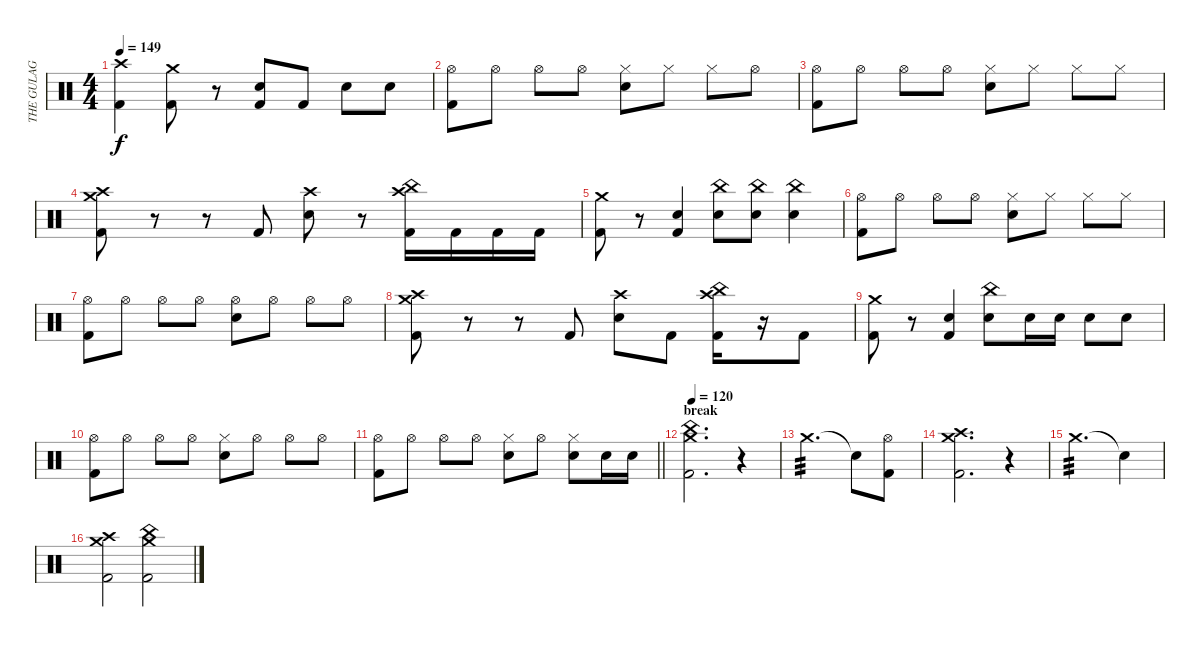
\track ("THE GULAG" "THE GULAG") {instrument percussion}
\staff {score}
\articulation defaults
\ts (4 4)
\tempo 149
\clef neutral
\ks c
("Crash high (hit)" "Kick (hit) 2").4{dy f} ("Crash medium (hit)" "Kick (hit) 2").8 r.8 ("Snare (hit) 2" "Kick (hit) 2").8 "Kick (hit) 2".8 "Snare (hit) 2".8 "Snare (hit) 2".8 |
("Hi-Hat (open)" "Kick (hit) 2").8 "Hi-Hat (open)".8 "Hi-Hat (open)".8 "Hi-Hat (open)".8 ("Hi-Hat (closed)" "Snare (hit) 2").8 "Hi-Hat (closed)".8 "Hi-Hat (closed)".8 "Hi-Hat (open)".8 |
("Hi-Hat (open)" "Kick (hit) 2").8 "Hi-Hat (open)".8 "Hi-Hat (open)".8 "Hi-Hat (open)".8 ("Hi-Hat (closed)" "Snare (hit) 2").8 "Hi-Hat (closed)".8 "Hi-Hat (closed)".8 "Hi-Hat (closed)".8 |
("Crash high (hit)" "Crash medium (hit)" "Kick (hit) 2").8 r.8 r.8 "Kick (hit) 2".8 ("Crash high (hit)" "Snare (hit) 2").8 r.8 ("Crash high (hit)" "China (hit)" "Kick (hit) 2").16 "Kick (hit) 2".16 "Kick (hit) 2".16 "Kick (hit) 2".16 |
("Crash medium (hit)" "Kick (hit) 2").8 r.8 ("Snare (hit) 2" "Kick (hit) 2").4 ("China (hit)" "Snare (hit) 2").8 ("China (hit)" "Snare (hit) 2").8 ("China (hit)" "Snare (hit) 2").4 |
("Hi-Hat (open)" "Kick (hit) 2").8 "Hi-Hat (open)".8 "Hi-Hat (open)".8 "Hi-Hat (open)".8 ("Hi-Hat (closed)" "Snare (hit) 2").8 "Hi-Hat (closed)".8 "Hi-Hat (closed)".8 "Hi-Hat (closed)".8 |
("Hi-Hat (open)" "Kick (hit) 2").8 "Hi-Hat (open)".8 "Hi-Hat (open)".8 "Hi-Hat (open)".8 ("Hi-Hat (open)" "Snare (hit) 2").8 "Hi-Hat (open)".8 "Hi-Hat (open)".8 "Hi-Hat (open)".8 |
("Crash high (hit)" "Crash medium (hit)" "Kick (hit) 2").8 r.8 r.8 "Kick (hit) 2".8 ("Crash high (hit)" "Snare (hit) 2").8 "Kick (hit) 2".8 ("Crash high (hit)" "China (hit)" "Kick (hit) 2").16 r.16 "Kick (hit) 2".8 |
("Crash medium (hit)" "Kick (hit) 2").8 r.8 ("Snare (hit) 2" "Kick (hit) 2").4 ("China (hit)" "Snare (hit) 2").8 "Snare (hit) 2".16 "Snare (hit) 2".16 "Snare (hit) 2".8 "Snare (hit) 2".8 |
("Hi-Hat (open)" "Kick (hit) 2").8 "Hi-Hat (open)".8 "Hi-Hat (open)".8 "Hi-Hat (open)".8 ("Hi-Hat (closed)" "Snare (hit) 2").8 "Hi-Hat (open)".8 "Hi-Hat (open)".8 "Hi-Hat (open)".8 |
\barLineRight lightlight
("Hi-Hat (open)" "Kick (hit) 2").8 "Hi-Hat (open)".8 "Hi-Hat (open)".8 "Hi-Hat (open)".8 ("Hi-Hat (closed)" "Snare (hit) 2").8 "Hi-Hat (open)".8 ("Hi-Hat (closed)" "Snare (hit) 2").8 "Snare (hit) 2".16 "Snare (hit) 2".16 |
\section ("" "break")
\tempo 120
("Crash medium (hit)" "China (hit)" "Kick (hit) 2").2{d} r.4{volume 0} |
"Crash medium (hit)".2{d tp 3 volume 13} "Snare (hit)"{t}.8 ("Hi-Hat (open)" "Kick (hit) 2").8 |
("Crash medium (hit)" "Crash high (hit)" "Kick (hit) 2").2{d} r.4{volume 0} |
"Crash medium (hit)".2{d tp 3 volume 13} "Snare (hit)"{t}.4 |
("Crash medium (hit)" "Crash high (hit)" "Kick (hit) 2").2 ("Crash medium (hit)" "China (hit)" "Kick (hit) 2").2
